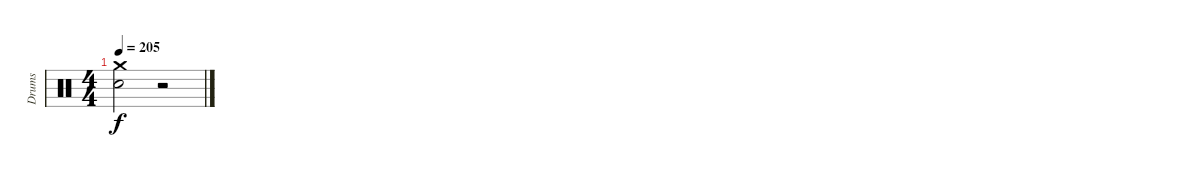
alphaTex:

\track ("Drums" "Drums") {instrument percussion}
\staff {score}
\articulation defaults
\ts (4 4)
\tempo 205
\clef neutral
\ks c
("Electric Snare (hit)" "Crash medium (hit)").2{dy f} r.2
